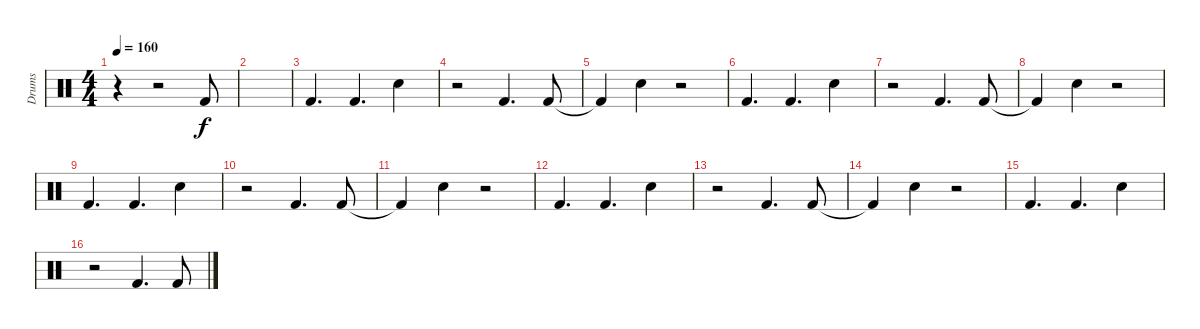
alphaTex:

\track ("Drums" "Drums") {instrument percussion}
\staff {score}
\articulation defaults
\ts (4 4)
\tempo 160
\clef neutral
\ks c
r.4{dy f} r.2 "Kick (hit) 2".8 |
|
"Kick (hit) 2".4{d} "Kick (hit) 2".4{d} "Snare (hit) 2".4 |
r.2 "Kick (hit) 2".4{d} "Kick (hit) 2".8 |
"Kick (hit) 2"{t}.4 "Snare (hit) 2".4 r.2 |
"Kick (hit) 2".4{d} "Kick (hit) 2".4{d} "Snare (hit) 2".4 |
r.2 "Kick (hit) 2".4{d} "Kick (hit) 2".8 |
"Kick (hit) 2"{t}.4 "Snare (hit) 2".4 r.2 |
"Kick (hit) 2".4{d} "Kick (hit) 2".4{d} "Snare (hit) 2".4 |
r.2 "Kick (hit) 2".4{d} "Kick (hit) 2".8 |
"Kick (hit) 2"{t}.4 "Snare (hit) 2".4 r.2 |
"Kick (hit) 2".4{d} "Kick (hit) 2".4{d} "Snare (hit) 2".4 |
r.2 "Kick (hit) 2".4{d} "Kick (hit) 2".8 |
"Kick (hit) 2"{t}.4 "Snare (hit) 2".4 r.2 |
"Kick (hit) 2".4{d} "Kick (hit) 2".4{d} "Snare (hit) 2".4 |
r.2 "Kick (hit) 2".4{d} "Kick (hit) 2".8
